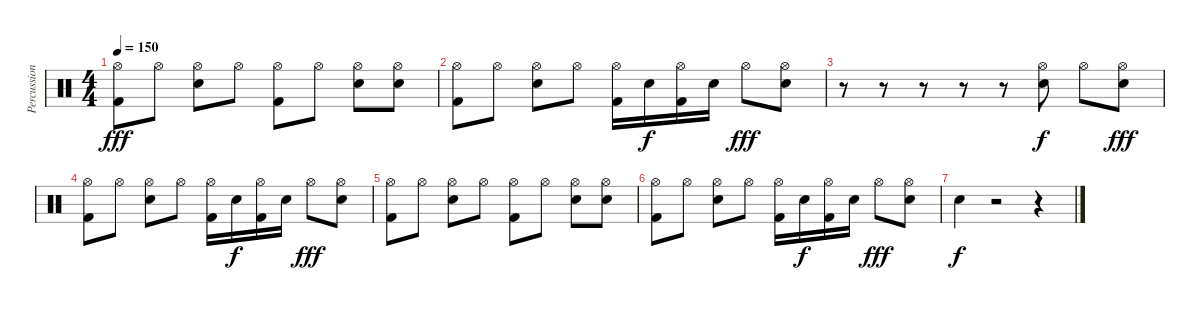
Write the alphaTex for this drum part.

\track ("Percussions" "Percussion") {instrument percussion}
\staff {score}
\articulation defaults
\ts (4 4)
\tempo 150
\clef neutral
\ks c
("Hi-Hat (open)" "Kick (hit) 2").8{dy fff} "Hi-Hat (open)".8 ("Hi-Hat (open)" "Electric Snare (hit)").8 "Hi-Hat (open)".8 ("Hi-Hat (open)" "Kick (hit) 2").8 "Hi-Hat (open)".8 ("Hi-Hat (open)" "Electric Snare (hit)").8 ("Hi-Hat (open)" "Electric Snare (hit)").8 |
("Hi-Hat (open)" "Kick (hit) 2").8 "Hi-Hat (open)".8 ("Hi-Hat (open)" "Electric Snare (hit)").8 "Hi-Hat (open)".8 ("Hi-Hat (open)" "Kick (hit) 2").16 "Electric Snare (hit)".16{dy f} ("Hi-Hat (open)" "Kick (hit) 2").16 "Electric Snare (hit)".16 "Hi-Hat (open)".8{dy fff} ("Hi-Hat (open)" "Electric Snare (hit)").8 |
r.8 r.8 r.8 r.8 r.8 ("Hi-Hat (open)" "Electric Snare (hit)").8{dy f} "Hi-Hat (open)".8 ("Hi-Hat (open)" "Electric Snare (hit)").8{dy fff} |
("Hi-Hat (open)" "Kick (hit) 2").8 "Hi-Hat (open)".8 ("Hi-Hat (open)" "Electric Snare (hit)").8 "Hi-Hat (open)".8 ("Hi-Hat (open)" "Kick (hit) 2").16 "Electric Snare (hit)".16{dy f} ("Hi-Hat (open)" "Kick (hit) 2").16 "Electric Snare (hit)".16 "Hi-Hat (open)".8{dy fff} ("Hi-Hat (open)" "Electric Snare (hit)").8 |
("Hi-Hat (open)" "Kick (hit) 2").8 "Hi-Hat (open)".8 ("Hi-Hat (open)" "Electric Snare (hit)").8 "Hi-Hat (open)".8 ("Hi-Hat (open)" "Kick (hit) 2").8 "Hi-Hat (open)".8 ("Hi-Hat (open)" "Electric Snare (hit)").8 ("Hi-Hat (open)" "Electric Snare (hit)").8 |
("Hi-Hat (open)" "Kick (hit) 2").8 "Hi-Hat (open)".8 ("Hi-Hat (open)" "Electric Snare (hit)").8 "Hi-Hat (open)".8 ("Hi-Hat (open)" "Kick (hit) 2").16 "Electric Snare (hit)".16{dy f} ("Hi-Hat (open)" "Kick (hit) 2").16 "Electric Snare (hit)".16 "Hi-Hat (open)".8{dy fff} ("Hi-Hat (open)" "Electric Snare (hit)").8 |
"Electric Snare (hit)".4{dy f} r.2 r.4
